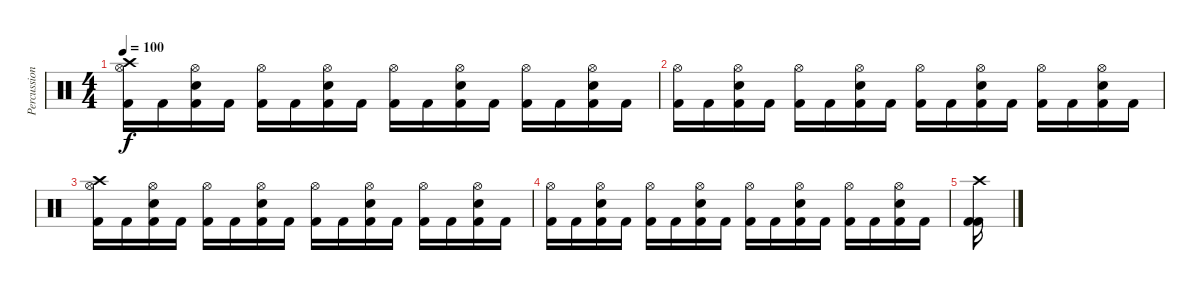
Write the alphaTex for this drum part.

\track ("Percussion" "Percussion") {instrument percussion}
\staff {score}
\articulation defaults
\ts (4 4)
\tempo 100
\clef neutral
\ks c
("Crash high (hit)" "Hi-Hat (open)" "Kick (hit) 2").16{dy f} "Kick (hit) 2".16 ("Snare (hit) 2" "Hi-Hat (open)" "Kick (hit) 2").16 "Kick (hit) 2".16 ("Hi-Hat (open)" "Kick (hit) 2").16 "Kick (hit) 2".16 ("Snare (hit) 2" "Hi-Hat (open)" "Kick (hit) 2").16 "Kick (hit) 2".16 ("Hi-Hat (open)" "Kick (hit) 2").16 "Kick (hit) 2".16 ("Snare (hit) 2" "Hi-Hat (open)" "Kick (hit) 2").16 "Kick (hit) 2".16 ("Hi-Hat (open)" "Kick (hit) 2").16 "Kick (hit) 2".16 ("Snare (hit) 2" "Hi-Hat (open)" "Kick (hit) 2").16 "Kick (hit) 2".16 |
("Hi-Hat (open)" "Kick (hit) 2").16 "Kick (hit) 2".16 ("Snare (hit) 2" "Hi-Hat (open)" "Kick (hit) 2").16 "Kick (hit) 2".16 ("Hi-Hat (open)" "Kick (hit) 2").16 "Kick (hit) 2".16 ("Snare (hit) 2" "Hi-Hat (open)" "Kick (hit) 2").16 "Kick (hit) 2".16 ("Hi-Hat (open)" "Kick (hit) 2").16 "Kick (hit) 2".16 ("Snare (hit) 2" "Hi-Hat (open)" "Kick (hit) 2").16 "Kick (hit) 2".16 ("Hi-Hat (open)" "Kick (hit) 2").16 "Kick (hit) 2".16 ("Snare (hit) 2" "Hi-Hat (open)" "Kick (hit) 2").16 "Kick (hit) 2".16 |
("Crash high (hit)" "Hi-Hat (open)" "Kick (hit) 2").16 "Kick (hit) 2".16 ("Snare (hit) 2" "Hi-Hat (open)" "Kick (hit) 2").16 "Kick (hit) 2".16 ("Hi-Hat (open)" "Kick (hit) 2").16 "Kick (hit) 2".16 ("Snare (hit) 2" "Hi-Hat (open)" "Kick (hit) 2").16 "Kick (hit) 2".16 ("Hi-Hat (open)" "Kick (hit) 2").16 "Kick (hit) 2".16 ("Snare (hit) 2" "Hi-Hat (open)" "Kick (hit) 2").16 "Kick (hit) 2".16 ("Hi-Hat (open)" "Kick (hit) 2").16 "Kick (hit) 2".16 ("Snare (hit) 2" "Hi-Hat (open)" "Kick (hit) 2").16 "Kick (hit) 2".16 |
("Hi-Hat (open)" "Kick (hit) 2").16 "Kick (hit) 2".16 ("Snare (hit) 2" "Hi-Hat (open)" "Kick (hit) 2").16 "Kick (hit) 2".16 ("Hi-Hat (open)" "Kick (hit) 2").16 "Kick (hit) 2".16 ("Snare (hit) 2" "Hi-Hat (open)" "Kick (hit) 2").16 "Kick (hit) 2".16 ("Hi-Hat (open)" "Kick (hit) 2").16 "Kick (hit) 2".16 ("Snare (hit) 2" "Hi-Hat (open)" "Kick (hit) 2").16 "Kick (hit) 2".16 ("Hi-Hat (open)" "Kick (hit) 2").16 "Kick (hit) 2".16 ("Snare (hit) 2" "Hi-Hat (open)" "Kick (hit) 2").16 "Kick (hit) 2".16 |
("Crash high (hit)" "Kick (hit) 2" "Kick (hit) 2").16
